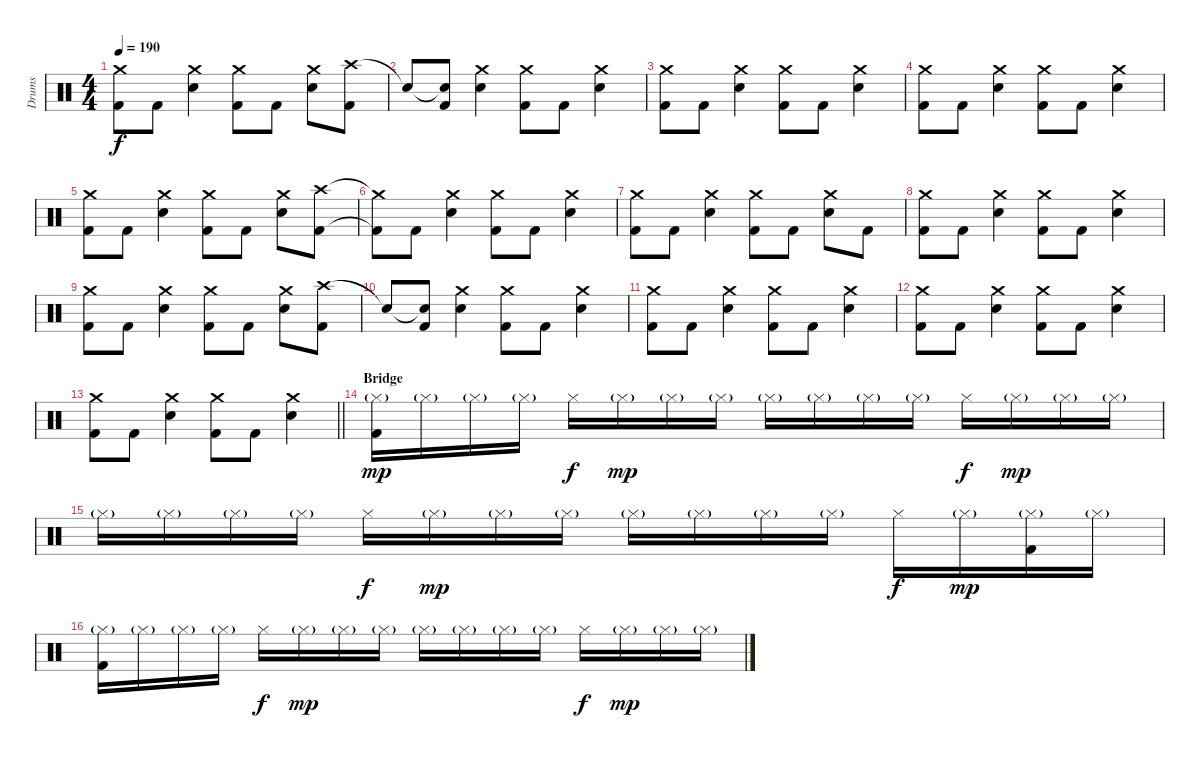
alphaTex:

\track ("Drums" "Drums") {instrument percussion}
\staff {score}
\articulation defaults
\ts (4 4)
\tempo 190
\clef neutral
\ks c
("Crash medium (hit)" "Kick (hit) 2").8{dy f} "Kick (hit) 2".8 ("Crash medium (hit)" "Electric Snare (hit)").4 ("Crash medium (hit)" "Kick (hit) 2").8 "Kick (hit) 2".8 ("Crash medium (hit)" "Electric Snare (hit)").8 ("Crash high (hit)" "Kick (hit) 2").8 |
"Snare (hit)"{t}.8 ("Snare (hit)"{t} "Kick (hit) 2").8 ("Crash medium (hit)" "Electric Snare (hit)").4 ("Crash medium (hit)" "Kick (hit) 2").8 "Kick (hit) 2".8 ("Crash medium (hit)" "Electric Snare (hit)").4 |
("Crash medium (hit)" "Kick (hit) 2").8 "Kick (hit) 2".8 ("Crash medium (hit)" "Electric Snare (hit)").4 ("Crash medium (hit)" "Kick (hit) 2").8 "Kick (hit) 2".8 ("Crash medium (hit)" "Electric Snare (hit)").4 |
("Crash medium (hit)" "Kick (hit) 2").8 "Kick (hit) 2".8 ("Crash medium (hit)" "Electric Snare (hit)").4 ("Crash medium (hit)" "Kick (hit) 2").8 "Kick (hit) 2".8 ("Crash medium (hit)" "Electric Snare (hit)").4 |
("Crash medium (hit)" "Kick (hit) 2").8 "Kick (hit) 2".8 ("Crash medium (hit)" "Electric Snare (hit)").4 ("Crash medium (hit)" "Kick (hit) 2").8 "Kick (hit) 2".8 ("Crash medium (hit)" "Electric Snare (hit)").8 ("Crash high (hit)" "Kick (hit) 2").8 |
("Crash medium (hit)"{t} "Kick (hit) 2"{t}).8 "Kick (hit) 2".8 ("Crash medium (hit)" "Electric Snare (hit)").4 ("Crash medium (hit)" "Kick (hit) 2").8 "Kick (hit) 2".8 ("Crash medium (hit)" "Electric Snare (hit)").4 |
("Crash medium (hit)" "Kick (hit) 2").8 "Kick (hit) 2".8 ("Crash medium (hit)" "Electric Snare (hit)").4 ("Crash medium (hit)" "Kick (hit) 2").8 "Kick (hit) 2".8 ("Crash medium (hit)" "Electric Snare (hit)").8 "Kick (hit) 2".8 |
("Crash medium (hit)" "Kick (hit) 2").8 "Kick (hit) 2".8 ("Crash medium (hit)" "Electric Snare (hit)").4 ("Crash medium (hit)" "Kick (hit) 2").8 "Kick (hit) 2".8 ("Crash medium (hit)" "Electric Snare (hit)").4 |
("Crash medium (hit)" "Kick (hit) 2").8 "Kick (hit) 2".8 ("Crash medium (hit)" "Electric Snare (hit)").4 ("Crash medium (hit)" "Kick (hit) 2").8 "Kick (hit) 2".8 ("Crash medium (hit)" "Electric Snare (hit)").8 ("Crash high (hit)" "Kick (hit) 2").8 |
"Snare (hit)"{t}.8 ("Snare (hit)"{t} "Kick (hit) 2").8 ("Crash medium (hit)" "Electric Snare (hit)").4 ("Crash medium (hit)" "Kick (hit) 2").8 "Kick (hit) 2".8 ("Crash medium (hit)" "Electric Snare (hit)").4 |
("Crash medium (hit)" "Kick (hit) 2").8 "Kick (hit) 2".8 ("Crash medium (hit)" "Electric Snare (hit)").4 ("Crash medium (hit)" "Kick (hit) 2").8 "Kick (hit) 2".8 ("Crash medium (hit)" "Electric Snare (hit)").4 |
("Crash medium (hit)" "Kick (hit) 2").8 "Kick (hit) 2".8 ("Crash medium (hit)" "Electric Snare (hit)").4 ("Crash medium (hit)" "Kick (hit) 2").8 "Kick (hit) 2".8 ("Crash medium (hit)" "Electric Snare (hit)").4 |
\barLineRight lightlight
("Crash medium (hit)" "Kick (hit) 2").8 "Kick (hit) 2".8 ("Crash medium (hit)" "Electric Snare (hit)").4 ("Crash medium (hit)" "Kick (hit) 2").8 "Kick (hit) 2".8 ("Crash medium (hit)" "Electric Snare (hit)").4 |
\section ("" "Bridge")
("Hi-Hat (closed)"{g} "Kick (hit) 2").16{dy mp} "Hi-Hat (closed)"{g}.16 "Hi-Hat (closed)"{g}.16 "Hi-Hat (closed)"{g}.16 "Hi-Hat (closed)".16{dy f} "Hi-Hat (closed)"{g}.16{dy mp} "Hi-Hat (closed)"{g}.16 "Hi-Hat (closed)"{g}.16 "Hi-Hat (closed)"{g}.16 "Hi-Hat (closed)"{g}.16 "Hi-Hat (closed)"{g}.16 "Hi-Hat (closed)"{g}.16 "Hi-Hat (closed)".16{dy f} "Hi-Hat (closed)"{g}.16{dy mp} "Hi-Hat (closed)"{g}.16 "Hi-Hat (closed)"{g}.16 |
"Hi-Hat (closed)"{g}.16 "Hi-Hat (closed)"{g}.16 "Hi-Hat (closed)"{g}.16 "Hi-Hat (closed)"{g}.16 "Hi-Hat (closed)".16{dy f} "Hi-Hat (closed)"{g}.16{dy mp} "Hi-Hat (closed)"{g}.16 "Hi-Hat (closed)"{g}.16 "Hi-Hat (closed)"{g}.16 "Hi-Hat (closed)"{g}.16 "Hi-Hat (closed)"{g}.16 "Hi-Hat (closed)"{g}.16 "Hi-Hat (closed)".16{dy f} "Hi-Hat (closed)"{g}.16{dy mp} ("Hi-Hat (closed)"{g} "Kick (hit) 2").16 "Hi-Hat (closed)"{g}.16 |
("Hi-Hat (closed)"{g} "Kick (hit) 2").16 "Hi-Hat (closed)"{g}.16 "Hi-Hat (closed)"{g}.16 "Hi-Hat (closed)"{g}.16 "Hi-Hat (closed)".16{dy f} "Hi-Hat (closed)"{g}.16{dy mp} "Hi-Hat (closed)"{g}.16 "Hi-Hat (closed)"{g}.16 "Hi-Hat (closed)"{g}.16 "Hi-Hat (closed)"{g}.16 "Hi-Hat (closed)"{g}.16 "Hi-Hat (closed)"{g}.16 "Hi-Hat (closed)".16{dy f} "Hi-Hat (closed)"{g}.16{dy mp} "Hi-Hat (closed)"{g}.16 "Hi-Hat (closed)"{g}.16
